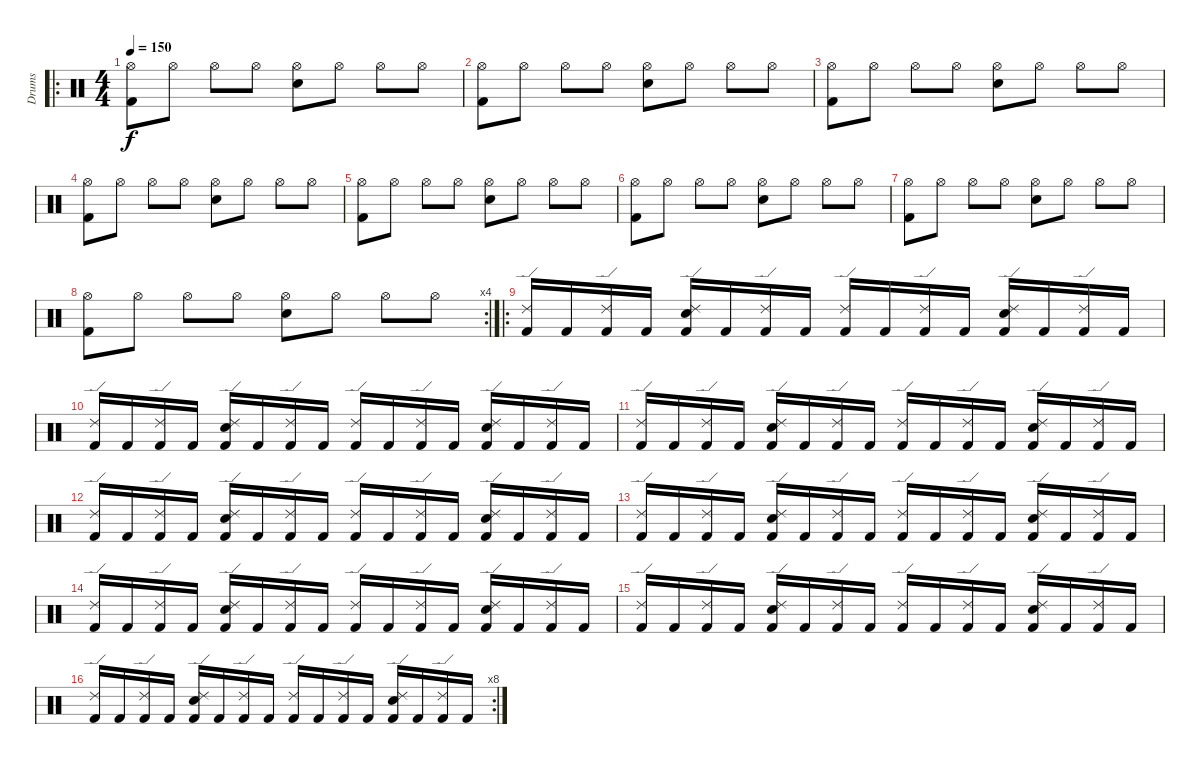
\track ("Drums" "Drums") {instrument percussion}
\staff {score}
\articulation defaults
\ro
\ts (4 4)
\tempo 150
\clef neutral
\ks c
("Hi-Hat (open)" "Kick (hit) 2").8{dy f} "Hi-Hat (open)".8 "Hi-Hat (open)".8 "Hi-Hat (open)".8 ("Hi-Hat (open)" "Electric Snare (hit)").8 "Hi-Hat (open)".8 "Hi-Hat (open)".8 "Hi-Hat (open)".8 |
("Hi-Hat (open)" "Kick (hit) 2").8 "Hi-Hat (open)".8 "Hi-Hat (open)".8 "Hi-Hat (open)".8 ("Hi-Hat (open)" "Electric Snare (hit)").8 "Hi-Hat (open)".8 "Hi-Hat (open)".8 "Hi-Hat (open)".8 |
("Hi-Hat (open)" "Kick (hit) 2").8 "Hi-Hat (open)".8 "Hi-Hat (open)".8 "Hi-Hat (open)".8 ("Hi-Hat (open)" "Electric Snare (hit)").8 "Hi-Hat (open)".8 "Hi-Hat (open)".8 "Hi-Hat (open)".8 |
("Hi-Hat (open)" "Kick (hit) 2").8 "Hi-Hat (open)".8 "Hi-Hat (open)".8 "Hi-Hat (open)".8 ("Hi-Hat (open)" "Electric Snare (hit)").8 "Hi-Hat (open)".8 "Hi-Hat (open)".8 "Hi-Hat (open)".8 |
("Hi-Hat (open)" "Kick (hit) 2").8 "Hi-Hat (open)".8 "Hi-Hat (open)".8 "Hi-Hat (open)".8 ("Hi-Hat (open)" "Electric Snare (hit)").8 "Hi-Hat (open)".8 "Hi-Hat (open)".8 "Hi-Hat (open)".8 |
("Hi-Hat (open)" "Kick (hit) 2").8 "Hi-Hat (open)".8 "Hi-Hat (open)".8 "Hi-Hat (open)".8 ("Hi-Hat (open)" "Electric Snare (hit)").8 "Hi-Hat (open)".8 "Hi-Hat (open)".8 "Hi-Hat (open)".8 |
("Hi-Hat (open)" "Kick (hit) 2").8 "Hi-Hat (open)".8 "Hi-Hat (open)".8 "Hi-Hat (open)".8 ("Hi-Hat (open)" "Electric Snare (hit)").8 "Hi-Hat (open)".8 "Hi-Hat (open)".8 "Hi-Hat (open)".8 |
\rc 4
("Hi-Hat (open)" "Kick (hit) 2").8 "Hi-Hat (open)".8 "Hi-Hat (open)".8 "Hi-Hat (open)".8 ("Hi-Hat (open)" "Electric Snare (hit)").8 "Hi-Hat (open)".8 "Hi-Hat (open)".8 "Hi-Hat (open)".8 |
\ro
("Ride (edge) 2" "Kick (hit) 2").16 "Kick (hit) 2".16 ("Ride (edge) 2" "Kick (hit) 2").16 "Kick (hit) 2".16 ("Ride (edge) 2" "Electric Snare (hit)" "Kick (hit) 2").16 "Kick (hit) 2".16 ("Ride (edge) 2" "Kick (hit) 2").16 "Kick (hit) 2".16 ("Ride (edge) 2" "Kick (hit) 2").16 "Kick (hit) 2".16 ("Ride (edge) 2" "Kick (hit) 2").16 "Kick (hit) 2".16 ("Ride (edge) 2" "Electric Snare (hit)" "Kick (hit) 2").16 "Kick (hit) 2".16 ("Ride (edge) 2" "Kick (hit) 2").16 "Kick (hit) 2".16 |
("Ride (edge) 2" "Kick (hit) 2").16 "Kick (hit) 2".16 ("Ride (edge) 2" "Kick (hit) 2").16 "Kick (hit) 2".16 ("Ride (edge) 2" "Electric Snare (hit)" "Kick (hit) 2").16 "Kick (hit) 2".16 ("Ride (edge) 2" "Kick (hit) 2").16 "Kick (hit) 2".16 ("Ride (edge) 2" "Kick (hit) 2").16 "Kick (hit) 2".16 ("Ride (edge) 2" "Kick (hit) 2").16 "Kick (hit) 2".16 ("Ride (edge) 2" "Electric Snare (hit)" "Kick (hit) 2").16 "Kick (hit) 2".16 ("Ride (edge) 2" "Kick (hit) 2").16 "Kick (hit) 2".16 |
("Ride (edge) 2" "Kick (hit) 2").16 "Kick (hit) 2".16 ("Ride (edge) 2" "Kick (hit) 2").16 "Kick (hit) 2".16 ("Ride (edge) 2" "Electric Snare (hit)" "Kick (hit) 2").16 "Kick (hit) 2".16 ("Ride (edge) 2" "Kick (hit) 2").16 "Kick (hit) 2".16 ("Ride (edge) 2" "Kick (hit) 2").16 "Kick (hit) 2".16 ("Ride (edge) 2" "Kick (hit) 2").16 "Kick (hit) 2".16 ("Ride (edge) 2" "Electric Snare (hit)" "Kick (hit) 2").16 "Kick (hit) 2".16 ("Ride (edge) 2" "Kick (hit) 2").16 "Kick (hit) 2".16 |
("Ride (edge) 2" "Kick (hit) 2").16 "Kick (hit) 2".16 ("Ride (edge) 2" "Kick (hit) 2").16 "Kick (hit) 2".16 ("Ride (edge) 2" "Electric Snare (hit)" "Kick (hit) 2").16 "Kick (hit) 2".16 ("Ride (edge) 2" "Kick (hit) 2").16 "Kick (hit) 2".16 ("Ride (edge) 2" "Kick (hit) 2").16 "Kick (hit) 2".16 ("Ride (edge) 2" "Kick (hit) 2").16 "Kick (hit) 2".16 ("Ride (edge) 2" "Electric Snare (hit)" "Kick (hit) 2").16 "Kick (hit) 2".16 ("Ride (edge) 2" "Kick (hit) 2").16 "Kick (hit) 2".16 |
("Ride (edge) 2" "Kick (hit) 2").16 "Kick (hit) 2".16 ("Ride (edge) 2" "Kick (hit) 2").16 "Kick (hit) 2".16 ("Ride (edge) 2" "Electric Snare (hit)" "Kick (hit) 2").16 "Kick (hit) 2".16 ("Ride (edge) 2" "Kick (hit) 2").16 "Kick (hit) 2".16 ("Ride (edge) 2" "Kick (hit) 2").16 "Kick (hit) 2".16 ("Ride (edge) 2" "Kick (hit) 2").16 "Kick (hit) 2".16 ("Ride (edge) 2" "Electric Snare (hit)" "Kick (hit) 2").16 "Kick (hit) 2".16 ("Ride (edge) 2" "Kick (hit) 2").16 "Kick (hit) 2".16 |
("Ride (edge) 2" "Kick (hit) 2").16 "Kick (hit) 2".16 ("Ride (edge) 2" "Kick (hit) 2").16 "Kick (hit) 2".16 ("Ride (edge) 2" "Electric Snare (hit)" "Kick (hit) 2").16 "Kick (hit) 2".16 ("Ride (edge) 2" "Kick (hit) 2").16 "Kick (hit) 2".16 ("Ride (edge) 2" "Kick (hit) 2").16 "Kick (hit) 2".16 ("Ride (edge) 2" "Kick (hit) 2").16 "Kick (hit) 2".16 ("Ride (edge) 2" "Electric Snare (hit)" "Kick (hit) 2").16 "Kick (hit) 2".16 ("Ride (edge) 2" "Kick (hit) 2").16 "Kick (hit) 2".16 |
("Ride (edge) 2" "Kick (hit) 2").16 "Kick (hit) 2".16 ("Ride (edge) 2" "Kick (hit) 2").16 "Kick (hit) 2".16 ("Ride (edge) 2" "Electric Snare (hit)" "Kick (hit) 2").16 "Kick (hit) 2".16 ("Ride (edge) 2" "Kick (hit) 2").16 "Kick (hit) 2".16 ("Ride (edge) 2" "Kick (hit) 2").16 "Kick (hit) 2".16 ("Ride (edge) 2" "Kick (hit) 2").16 "Kick (hit) 2".16 ("Ride (edge) 2" "Electric Snare (hit)" "Kick (hit) 2").16 "Kick (hit) 2".16 ("Ride (edge) 2" "Kick (hit) 2").16 "Kick (hit) 2".16 |
\rc 8
("Ride (edge) 2" "Kick (hit) 2").16 "Kick (hit) 2".16 ("Ride (edge) 2" "Kick (hit) 2").16 "Kick (hit) 2".16 ("Ride (edge) 2" "Electric Snare (hit)" "Kick (hit) 2").16 "Kick (hit) 2".16 ("Ride (edge) 2" "Kick (hit) 2").16 "Kick (hit) 2".16 ("Ride (edge) 2" "Kick (hit) 2").16 "Kick (hit) 2".16 ("Ride (edge) 2" "Kick (hit) 2").16 "Kick (hit) 2".16 ("Ride (edge) 2" "Electric Snare (hit)" "Kick (hit) 2").16 "Kick (hit) 2".16 ("Ride (edge) 2" "Kick (hit) 2").16 "Kick (hit) 2".16
